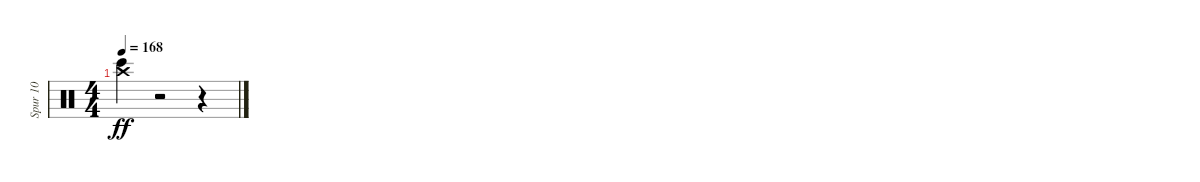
\track ("Spur 10" "Spur 10") {instrument percussion}
\staff {score}
\articulation defaults
\ts (4 4)
\tempo 168
\clef neutral
\ks c
("Crash high (hit)" "Bongo High (hit)").4{dy ff} r.2 r.4
